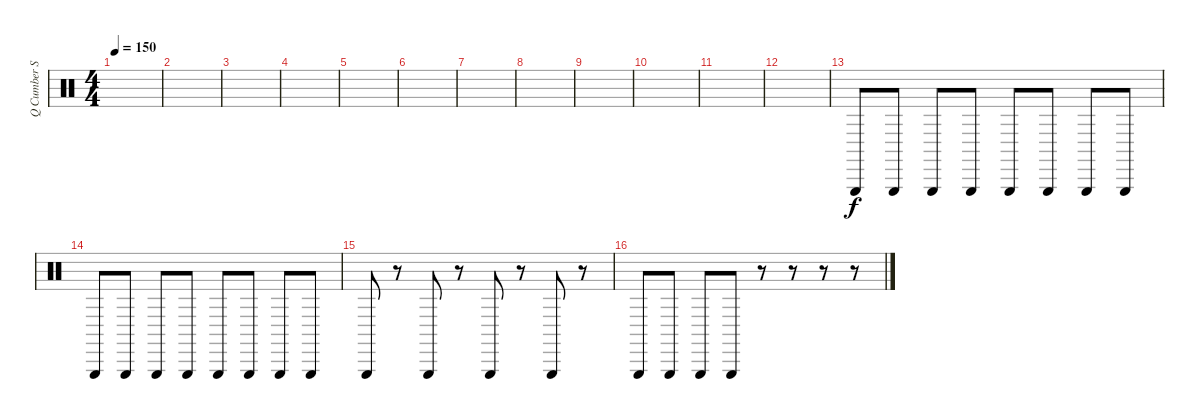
\track ("Q Cumber Slice" "Q Cumber S") {instrument percussion}
\staff {score}
\articulation defaults
\ts (4 4)
\tempo 150
\clef neutral
\ks c
|
|
|
|
|
|
|
|
|
|
|
|
"Triangle (hit)".8 "Triangle (hit)".8 "Triangle (hit)".8 "Triangle (hit)".8 "Triangle (hit)".8 "Triangle (hit)".8 "Triangle (hit)".8 "Triangle (hit)".8 |
"Triangle (hit)".8 "Triangle (hit)".8 "Triangle (hit)".8 "Triangle (hit)".8 "Triangle (hit)".8 "Triangle (hit)".8 "Triangle (hit)".8 "Triangle (hit)".8 |
"Triangle (hit)".8 r.8 "Triangle (hit)".8 r.8 "Triangle (hit)".8 r.8 "Triangle (hit)".8 r.8 |
"Triangle (hit)".8 "Triangle (hit)".8 "Triangle (hit)".8 "Triangle (hit)".8 r.8 r.8 r.8 r.8
